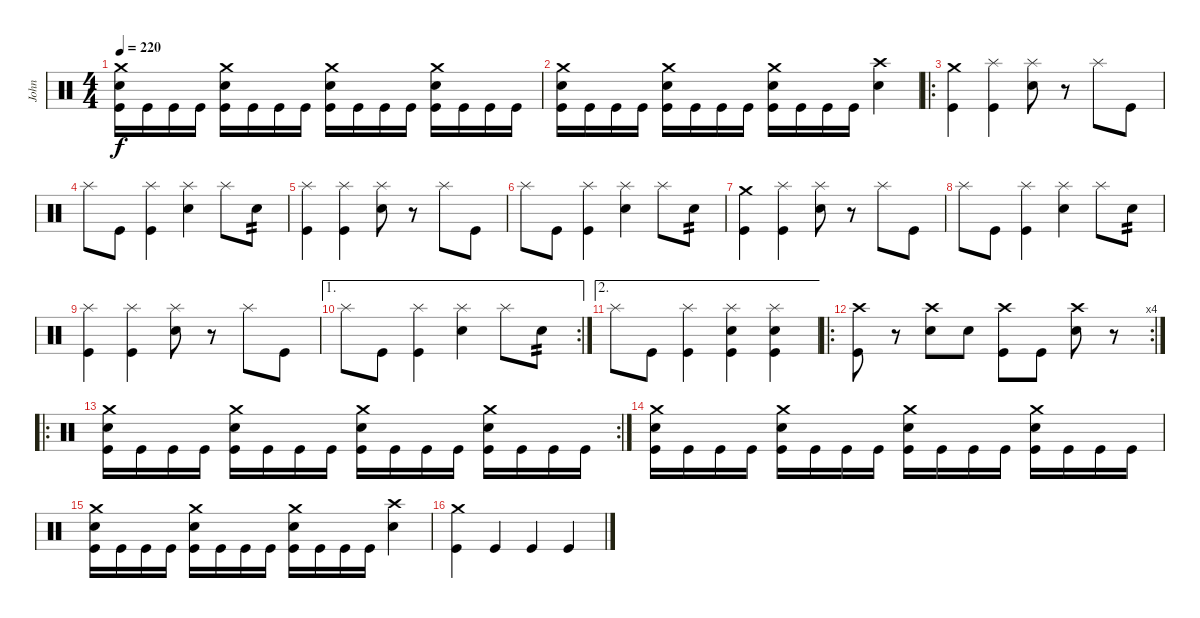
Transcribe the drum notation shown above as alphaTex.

\track ("John" "John") {instrument percussion}
\staff {score}
\articulation defaults
\ts (4 4)
\tempo 220
\clef neutral
\ks c
("Crash medium (hit)" "Snare (hit) 2" "Kick (hit)").16{dy f} "Kick (hit)".16 "Kick (hit)".16 "Kick (hit)".16 ("Crash medium (hit)" "Snare (hit) 2" "Kick (hit)").16 "Kick (hit)".16 "Kick (hit)".16 "Kick (hit)".16 ("Crash medium (hit)" "Snare (hit) 2" "Kick (hit)").16 "Kick (hit)".16 "Kick (hit)".16 "Kick (hit)".16 ("Crash medium (hit)" "Snare (hit) 2" "Kick (hit)").16 "Kick (hit)".16 "Kick (hit)".16 "Kick (hit)".16 |
("Crash medium (hit)" "Snare (hit) 2" "Kick (hit)").16 "Kick (hit)".16 "Kick (hit)".16 "Kick (hit)".16 ("Crash medium (hit)" "Snare (hit) 2" "Kick (hit)").16 "Kick (hit)".16 "Kick (hit)".16 "Kick (hit)".16 ("Crash medium (hit)" "Snare (hit) 2" "Kick (hit)").16 "Kick (hit)".16 "Kick (hit)".16 "Kick (hit)".16 ("Crash high (hit)" "Snare (hit) 2").4 |
\ro
("Crash medium (hit)" "Kick (hit)").4 ("Splash (hit)" "Kick (hit)").4 ("Splash (hit)" "Snare (hit) 2").8 r.8 "Splash (hit)".8 "Kick (hit)".8 |
"Splash (hit)".8 "Kick (hit)".8 ("Splash (hit)" "Kick (hit)").4 ("Splash (hit)" "Snare (hit) 2").4 "Splash (hit)".8 "Snare (hit) 2".8{tp 2} |
("Splash (hit)" "Kick (hit)").4 ("Splash (hit)" "Kick (hit)").4 ("Splash (hit)" "Snare (hit) 2").8 r.8 "Splash (hit)".8 "Kick (hit)".8 |
"Splash (hit)".8 "Kick (hit)".8 ("Splash (hit)" "Kick (hit)").4 ("Splash (hit)" "Snare (hit) 2").4 "Splash (hit)".8 "Snare (hit) 2".8{tp 2} |
("Crash medium (hit)" "Kick (hit)").4 ("Splash (hit)" "Kick (hit)").4 ("Splash (hit)" "Snare (hit) 2").8 r.8 "Splash (hit)".8 "Kick (hit)".8 |
"Splash (hit)".8 "Kick (hit)".8 ("Splash (hit)" "Kick (hit)").4 ("Splash (hit)" "Snare (hit) 2").4 "Splash (hit)".8 "Snare (hit) 2".8{tp 2} |
("Splash (hit)" "Kick (hit)").4 ("Splash (hit)" "Kick (hit)").4 ("Splash (hit)" "Snare (hit) 2").8 r.8 "Splash (hit)".8 "Kick (hit)".8 |
\ae 1
\rc 2 "Splash (hit)".8 "Kick (hit)".8
("Splash (hit)" "Kick (hit)").4 ("Splash (hit)" "Snare (hit) 2").4 "Splash (hit)".8 "Snare (hit) 2".8{tp 2} |
\ae 2 "Splash (hit)".8 "Kick (hit)".8
("Splash (hit)" "Kick (hit)").4 ("Splash (hit)" "Snare (hit) 2" "Kick (hit)").4 ("Splash (hit)" "Snare (hit) 2" "Kick (hit)").4 |
\ro
\rc 4
("Crash high (hit)" "Kick (hit)").8 r.8 ("Crash high (hit)" "Snare (hit) 2").8 "Snare (hit) 2".8 ("Crash high (hit)" "Kick (hit)").8 "Kick (hit)".8 ("Crash high (hit)" "Snare (hit) 2").8 r.8 |
\ro
\rc 2
("Crash medium (hit)" "Snare (hit) 2" "Kick (hit)").16 "Kick (hit)".16 "Kick (hit)".16 "Kick (hit)".16 ("Crash medium (hit)" "Snare (hit) 2" "Kick (hit)").16 "Kick (hit)".16 "Kick (hit)".16 "Kick (hit)".16 ("Crash medium (hit)" "Snare (hit) 2" "Kick (hit)").16 "Kick (hit)".16 "Kick (hit)".16 "Kick (hit)".16 ("Crash medium (hit)" "Snare (hit) 2" "Kick (hit)").16 "Kick (hit)".16 "Kick (hit)".16 "Kick (hit)".16 |
("Crash medium (hit)" "Snare (hit) 2" "Kick (hit)").16 "Kick (hit)".16 "Kick (hit)".16 "Kick (hit)".16 ("Crash medium (hit)" "Snare (hit) 2" "Kick (hit)").16 "Kick (hit)".16 "Kick (hit)".16 "Kick (hit)".16 ("Crash medium (hit)" "Snare (hit) 2" "Kick (hit)").16 "Kick (hit)".16 "Kick (hit)".16 "Kick (hit)".16 ("Crash medium (hit)" "Snare (hit) 2" "Kick (hit)").16 "Kick (hit)".16 "Kick (hit)".16 "Kick (hit)".16 |
("Crash medium (hit)" "Snare (hit) 2" "Kick (hit)").16 "Kick (hit)".16 "Kick (hit)".16 "Kick (hit)".16 ("Crash medium (hit)" "Snare (hit) 2" "Kick (hit)").16 "Kick (hit)".16 "Kick (hit)".16 "Kick (hit)".16 ("Crash medium (hit)" "Snare (hit) 2" "Kick (hit)").16 "Kick (hit)".16 "Kick (hit)".16 "Kick (hit)".16 ("Crash high (hit)" "Snare (hit) 2").4 |
("Crash medium (hit)" "Kick (hit)").4 "Kick (hit)".4 "Kick (hit)".4 "Kick (hit)".4
